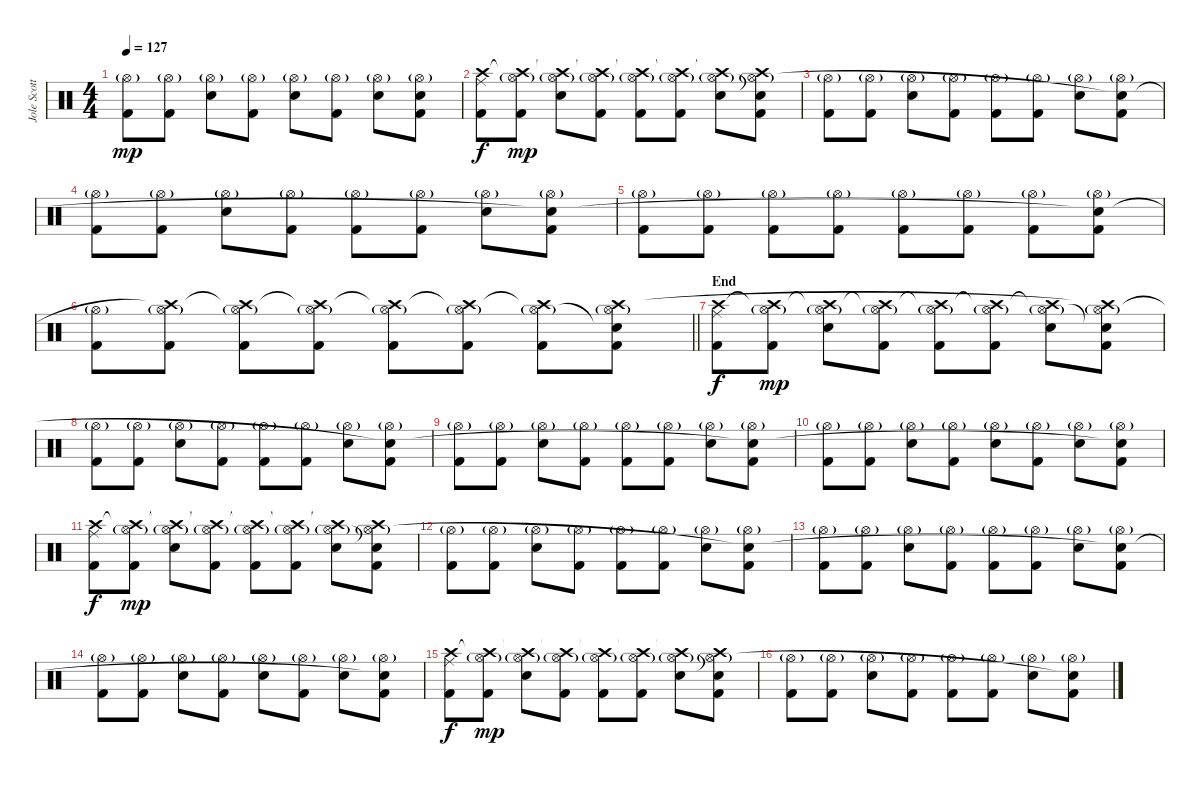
\track ("Jole Scott Key" "Jole Scott") {instrument percussion}
\staff {score}
\articulation defaults
\ts (4 4)
\tempo 127
\clef neutral
\ks c
("Kick (hit) 2" "Hi-Hat (open)"{g}).8{dy mp} ("Kick (hit) 2" "Hi-Hat (open)"{g}).8 ("Electric Snare (hit)" "Hi-Hat (open)"{g}).8 ("Kick (hit) 2" "Hi-Hat (open)"{g}).8 ("Electric Snare (hit)" "Hi-Hat (open)"{g}).8 ("Kick (hit) 2" "Hi-Hat (open)"{g}).8 ("Electric Snare (hit)" "Hi-Hat (open)"{g}).8 ("Kick (hit) 2" "Hi-Hat (open)"{g} "Snare (hit)"{t}).8 |
("Kick (hit) 2" "Ride (middle)" "Crash high (hit)").8{dy f} ("Kick (hit) 2" "Hi-Hat (open)"{g} "Crash high (hit)"{t}).8{dy mp} ("Electric Snare (hit)" "Hi-Hat (open)"{g} "Crash high (hit)"{t}).8 ("Kick (hit) 2" "Hi-Hat (open)"{g} "Crash high (hit)"{t}).8 ("Kick (hit) 2" "Hi-Hat (open)"{g} "Crash high (hit)"{t}).8 ("Kick (hit) 2" "Hi-Hat (open)"{g} "Crash high (hit)"{t}).8 ("Electric Snare (hit)" "Hi-Hat (open)"{g} "Crash high (hit)"{t}).8 ("Kick (hit) 2" "Snare (hit)"{t} "Hi-Hat (open)"{g} "Crash high (hit)").8 |
("Kick (hit) 2" "Hi-Hat (open)"{g}).8 ("Kick (hit) 2" "Hi-Hat (open)"{g}).8 ("Electric Snare (hit)" "Hi-Hat (open)"{g}).8 ("Kick (hit) 2" "Hi-Hat (open)"{g}).8 ("Kick (hit) 2" "Hi-Hat (open)"{g}).8 ("Kick (hit) 2" "Hi-Hat (open)"{g}).8 ("Electric Snare (hit)" "Hi-Hat (open)"{g}).8 ("Kick (hit) 2" "Hi-Hat (open)"{g} "Snare (hit)"{t}).8 |
("Kick (hit) 2" "Hi-Hat (open)"{g}).8 ("Kick (hit) 2" "Hi-Hat (open)"{g}).8 ("Electric Snare (hit)" "Hi-Hat (open)"{g}).8 ("Kick (hit) 2" "Hi-Hat (open)"{g}).8 ("Kick (hit) 2" "Hi-Hat (open)"{g}).8 ("Kick (hit) 2" "Hi-Hat (open)"{g}).8 ("Electric Snare (hit)" "Hi-Hat (open)"{g}).8 ("Kick (hit) 2" "Hi-Hat (open)"{g} "Snare (hit)"{t}).8 |
("Kick (hit) 2" "Hi-Hat (open)"{g}).8 ("Kick (hit) 2" "Hi-Hat (open)"{g}).8 ("Kick (hit) 2" "Hi-Hat (open)"{g}).8 ("Kick (hit) 2" "Hi-Hat (open)"{g}).8 ("Kick (hit) 2" "Hi-Hat (open)"{g}).8 ("Kick (hit) 2" "Hi-Hat (open)"{g}).8 ("Kick (hit) 2" "Hi-Hat (open)"{g}).8 ("Kick (hit) 2" "Hi-Hat (open)"{g} "Snare (hit)"{t}).8 |
\barLineRight lightlight
("Kick (hit) 2" "Hi-Hat (open)"{g}).8 ("Kick (hit) 2" "Hi-Hat (open)"{g} "Crash high (hit)"{t}).8 ("Kick (hit) 2" "Hi-Hat (open)"{g} "Crash high (hit)"{t}).8 ("Kick (hit) 2" "Hi-Hat (open)"{g} "Crash high (hit)"{t}).8 ("Kick (hit) 2" "Hi-Hat (open)"{g} "Crash high (hit)"{t}).8 ("Kick (hit) 2" "Hi-Hat (open)"{g} "Crash high (hit)"{t}).8 ("Kick (hit) 2" "Hi-Hat (open)"{g} "Crash high (hit)"{t}).8 ("Kick (hit) 2" "Snare (hit)"{t} "Hi-Hat (open)"{g} "Crash high (hit)").8 |
\section ("" "End")
("Kick (hit) 2" "Ride (middle)" "Crash high (hit)").8{dy f} ("Kick (hit) 2" "Hi-Hat (open)"{g} "Crash high (hit)"{t}).8{dy mp} ("Electric Snare (hit)" "Hi-Hat (open)"{g} "Crash high (hit)"{t}).8 ("Kick (hit) 2" "Hi-Hat (open)"{g} "Crash high (hit)"{t}).8 ("Kick (hit) 2" "Hi-Hat (open)"{g} "Crash high (hit)"{t}).8 ("Kick (hit) 2" "Hi-Hat (open)"{g} "Crash high (hit)"{t}).8 ("Electric Snare (hit)" "Hi-Hat (open)"{g} "Crash high (hit)"{t}).8 ("Kick (hit) 2" "Snare (hit)"{t} "Hi-Hat (open)"{g} "Crash high (hit)"{t}).8 |
("Kick (hit) 2" "Hi-Hat (open)"{g}).8 ("Kick (hit) 2" "Hi-Hat (open)"{g}).8 ("Electric Snare (hit)" "Hi-Hat (open)"{g}).8 ("Kick (hit) 2" "Hi-Hat (open)"{g}).8 ("Kick (hit) 2" "Hi-Hat (open)"{g}).8 ("Kick (hit) 2" "Hi-Hat (open)"{g}).8 ("Electric Snare (hit)" "Hi-Hat (open)"{g}).8 ("Kick (hit) 2" "Hi-Hat (open)"{g} "Snare (hit)"{t}).8 |
("Kick (hit) 2" "Hi-Hat (open)"{g}).8 ("Kick (hit) 2" "Hi-Hat (open)"{g}).8 ("Electric Snare (hit)" "Hi-Hat (open)"{g}).8 ("Kick (hit) 2" "Hi-Hat (open)"{g}).8 ("Kick (hit) 2" "Hi-Hat (open)"{g}).8 ("Kick (hit) 2" "Hi-Hat (open)"{g}).8 ("Electric Snare (hit)" "Hi-Hat (open)"{g}).8 ("Kick (hit) 2" "Hi-Hat (open)"{g} "Snare (hit)"{t}).8 |
("Kick (hit) 2" "Hi-Hat (open)"{g}).8 ("Kick (hit) 2" "Hi-Hat (open)"{g}).8 ("Electric Snare (hit)" "Hi-Hat (open)"{g}).8 ("Kick (hit) 2" "Hi-Hat (open)"{g}).8 ("Electric Snare (hit)" "Hi-Hat (open)"{g}).8 ("Kick (hit) 2" "Hi-Hat (open)"{g}).8 ("Electric Snare (hit)" "Hi-Hat (open)"{g}).8 ("Kick (hit) 2" "Hi-Hat (open)"{g} "Snare (hit)"{t}).8 |
("Kick (hit) 2" "Ride (middle)" "Crash high (hit)").8{dy f} ("Kick (hit) 2" "Hi-Hat (open)"{g} "Crash high (hit)"{t}).8{dy mp} ("Electric Snare (hit)" "Hi-Hat (open)"{g} "Crash high (hit)"{t}).8 ("Kick (hit) 2" "Hi-Hat (open)"{g} "Crash high (hit)"{t}).8 ("Kick (hit) 2" "Hi-Hat (open)"{g} "Crash high (hit)"{t}).8 ("Kick (hit) 2" "Hi-Hat (open)"{g} "Crash high (hit)"{t}).8 ("Electric Snare (hit)" "Hi-Hat (open)"{g} "Crash high (hit)"{t}).8 ("Kick (hit) 2" "Snare (hit)"{t} "Hi-Hat (open)"{g} "Crash high (hit)").8 |
("Kick (hit) 2" "Hi-Hat (open)"{g}).8 ("Kick (hit) 2" "Hi-Hat (open)"{g}).8 ("Electric Snare (hit)" "Hi-Hat (open)"{g}).8 ("Kick (hit) 2" "Hi-Hat (open)"{g}).8 ("Kick (hit) 2" "Hi-Hat (open)"{g}).8 ("Kick (hit) 2" "Hi-Hat (open)"{g}).8 ("Electric Snare (hit)" "Hi-Hat (open)"{g}).8 ("Kick (hit) 2" "Hi-Hat (open)"{g} "Snare (hit)"{t}).8 |
("Kick (hit) 2" "Hi-Hat (open)"{g}).8 ("Kick (hit) 2" "Hi-Hat (open)"{g}).8 ("Electric Snare (hit)" "Hi-Hat (open)"{g}).8 ("Kick (hit) 2" "Hi-Hat (open)"{g}).8 ("Kick (hit) 2" "Hi-Hat (open)"{g}).8 ("Kick (hit) 2" "Hi-Hat (open)"{g}).8 ("Electric Snare (hit)" "Hi-Hat (open)"{g}).8 ("Kick (hit) 2" "Hi-Hat (open)"{g} "Snare (hit)"{t}).8 |
("Kick (hit) 2" "Hi-Hat (open)"{g}).8 ("Kick (hit) 2" "Hi-Hat (open)"{g}).8 ("Electric Snare (hit)" "Hi-Hat (open)"{g}).8 ("Kick (hit) 2" "Hi-Hat (open)"{g}).8 ("Electric Snare (hit)" "Hi-Hat (open)"{g}).8 ("Kick (hit) 2" "Hi-Hat (open)"{g}).8 ("Electric Snare (hit)" "Hi-Hat (open)"{g}).8 ("Kick (hit) 2" "Hi-Hat (open)"{g} "Snare (hit)"{t}).8 |
("Kick (hit) 2" "Ride (middle)" "Crash high (hit)").8{dy f} ("Kick (hit) 2" "Hi-Hat (open)"{g} "Crash high (hit)"{t}).8{dy mp} ("Electric Snare (hit)" "Hi-Hat (open)"{g} "Crash high (hit)"{t}).8 ("Kick (hit) 2" "Hi-Hat (open)"{g} "Crash high (hit)"{t}).8 ("Kick (hit) 2" "Hi-Hat (open)"{g} "Crash high (hit)"{t}).8 ("Kick (hit) 2" "Hi-Hat (open)"{g} "Crash high (hit)"{t}).8 ("Electric Snare (hit)" "Hi-Hat (open)"{g} "Crash high (hit)"{t}).8 ("Kick (hit) 2" "Snare (hit)"{t} "Hi-Hat (open)"{g} "Crash high (hit)").8 |
("Kick (hit) 2" "Hi-Hat (open)"{g}).8 ("Kick (hit) 2" "Hi-Hat (open)"{g}).8 ("Electric Snare (hit)" "Hi-Hat (open)"{g}).8 ("Kick (hit) 2" "Hi-Hat (open)"{g}).8 ("Kick (hit) 2" "Hi-Hat (open)"{g}).8 ("Kick (hit) 2" "Hi-Hat (open)"{g}).8 ("Electric Snare (hit)" "Hi-Hat (open)"{g}).8 ("Kick (hit) 2" "Hi-Hat (open)"{g} "Snare (hit)"{t}).8
